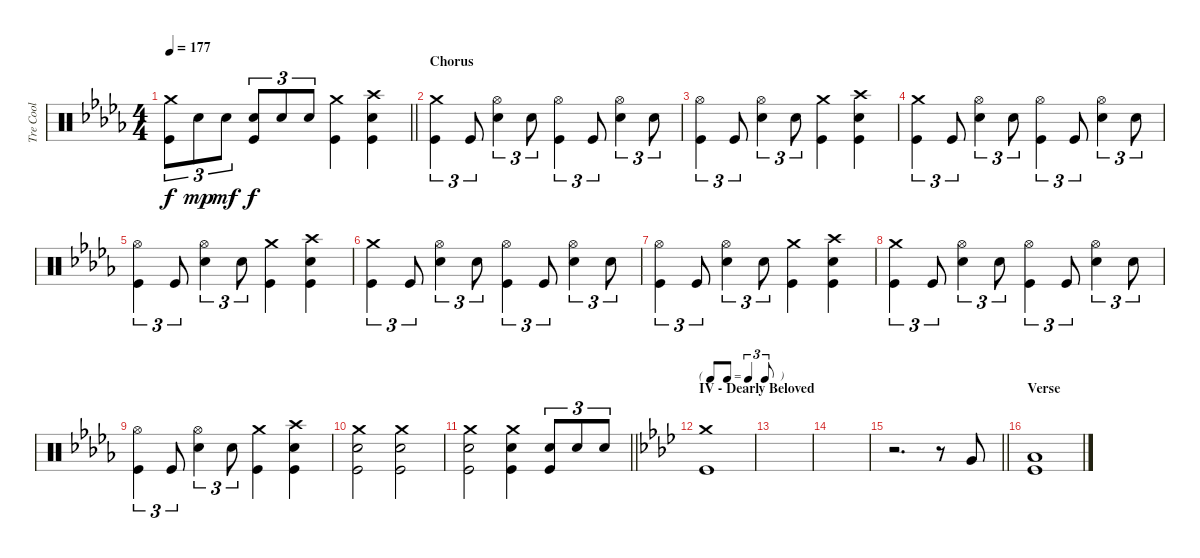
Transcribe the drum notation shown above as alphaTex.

\track ("Tre Cool" "Tre Cool") {instrument percussion}
\staff {score}
\articulation defaults
\ts (4 4)
\tempo 177
\clef neutral
\barLineRight lightlight
\ks db
("Crash medium (hit)" "Kick (hit)").8{tu (3 2) dy f} "Electric Snare (hit)".8{tu (3 2) dy mp} "Electric Snare (hit)".8{tu (3 2) dy mf} ("Electric Snare (hit)" "Kick (hit)").8{tu (3 2) dy f} "Electric Snare (hit)".8{tu (3 2)} "Electric Snare (hit)".8{tu (3 2)} ("Crash medium (hit)" "Kick (hit)").4 ("Crash high (hit)" "Electric Snare (hit)" "Kick (hit)").4 |
\section ("" "Chorus")
("Crash medium (hit)" "Kick (hit)").4{tu (3 2)} "Kick (hit)".8{tu (3 2)} ("Hi-Hat (open)" "Electric Snare (hit)").4{tu (3 2)} "Electric Snare (hit)".8{tu (3 2)} ("Hi-Hat (open)" "Kick (hit)").4{tu (3 2)} "Kick (hit)".8{tu (3 2)} ("Hi-Hat (open)" "Electric Snare (hit)").4{tu (3 2)} "Electric Snare (hit)".8{tu (3 2)} |
("Hi-Hat (open)" "Kick (hit)").4{tu (3 2)} "Kick (hit)".8{tu (3 2)} ("Hi-Hat (open)" "Electric Snare (hit)").4{tu (3 2)} "Electric Snare (hit)".8{tu (3 2)} ("Crash medium (hit)" "Kick (hit)").4 ("Crash high (hit)" "Electric Snare (hit)" "Kick (hit)").4 |
("Crash medium (hit)" "Kick (hit)").4{tu (3 2)} "Kick (hit)".8{tu (3 2)} ("Hi-Hat (open)" "Electric Snare (hit)").4{tu (3 2)} "Electric Snare (hit)".8{tu (3 2)} ("Hi-Hat (open)" "Kick (hit)").4{tu (3 2)} "Kick (hit)".8{tu (3 2)} ("Hi-Hat (open)" "Electric Snare (hit)").4{tu (3 2)} "Electric Snare (hit)".8{tu (3 2)} |
("Hi-Hat (open)" "Kick (hit)").4{tu (3 2)} "Kick (hit)".8{tu (3 2)} ("Hi-Hat (open)" "Electric Snare (hit)").4{tu (3 2)} "Electric Snare (hit)".8{tu (3 2)} ("Crash medium (hit)" "Kick (hit)").4 ("Crash high (hit)" "Electric Snare (hit)" "Kick (hit)").4 |
("Crash medium (hit)" "Kick (hit)").4{tu (3 2)} "Kick (hit)".8{tu (3 2)} ("Hi-Hat (open)" "Electric Snare (hit)").4{tu (3 2)} "Electric Snare (hit)".8{tu (3 2)} ("Hi-Hat (open)" "Kick (hit)").4{tu (3 2)} "Kick (hit)".8{tu (3 2)} ("Hi-Hat (open)" "Electric Snare (hit)").4{tu (3 2)} "Electric Snare (hit)".8{tu (3 2)} |
("Hi-Hat (open)" "Kick (hit)").4{tu (3 2)} "Kick (hit)".8{tu (3 2)} ("Hi-Hat (open)" "Electric Snare (hit)").4{tu (3 2)} "Electric Snare (hit)".8{tu (3 2)} ("Crash medium (hit)" "Kick (hit)").4 ("Crash high (hit)" "Electric Snare (hit)" "Kick (hit)").4 |
("Crash medium (hit)" "Kick (hit)").4{tu (3 2)} "Kick (hit)".8{tu (3 2)} ("Hi-Hat (open)" "Electric Snare (hit)").4{tu (3 2)} "Electric Snare (hit)".8{tu (3 2)} ("Hi-Hat (open)" "Kick (hit)").4{tu (3 2)} "Kick (hit)".8{tu (3 2)} ("Hi-Hat (open)" "Electric Snare (hit)").4{tu (3 2)} "Electric Snare (hit)".8{tu (3 2)} |
("Hi-Hat (open)" "Kick (hit)").4{tu (3 2)} "Kick (hit)".8{tu (3 2)} ("Hi-Hat (open)" "Electric Snare (hit)").4{tu (3 2)} "Electric Snare (hit)".8{tu (3 2)} ("Crash medium (hit)" "Kick (hit)").4 ("Crash high (hit)" "Electric Snare (hit)" "Kick (hit)").4 |
("Crash medium (hit)" "Electric Snare (hit)" "Kick (hit)").2 ("Crash medium (hit)" "Electric Snare (hit)" "Kick (hit)").2 |
\barLineRight lightlight
("Crash medium (hit)" "Electric Snare (hit)" "Kick (hit)").2 ("Crash medium (hit)" "Electric Snare (hit)" "Kick (hit)").4 ("Electric Snare (hit)" "Kick (hit)").8{tu (3 2)} "Electric Snare (hit)".8{tu (3 2)} "Electric Snare (hit)".8{tu (3 2)} |
\tf triplet8th
\section ("" "IV - Dearly Beloved")
\ks ab
("Crash medium (hit)" "Kick (hit)").1 |
|
|
\barLineRight lightlight
r.2{d} r.8 "Very Low Tom (hit)".8 |
\section ("" "Verse")
("Low Floor Tom (hit)" "Kick (hit)").1
